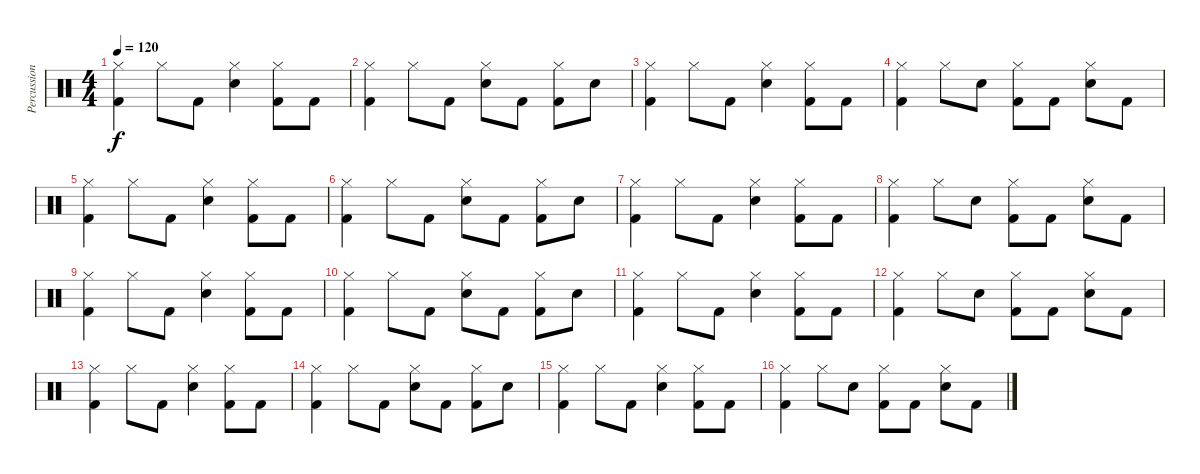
\track ("Percussions" "Percussion") {instrument percussion}
\staff {score}
\articulation defaults
\ts (4 4)
\tempo 120
\clef neutral
\ks c
("Hi-Hat (closed)" "Kick (hit) 2").4{dy f} "Hi-Hat (closed)".8 "Kick (hit) 2".8 ("Hi-Hat (closed)" "Snare (hit) 2").4 ("Hi-Hat (closed)" "Kick (hit) 2").8 "Kick (hit) 2".8 |
("Hi-Hat (closed)" "Kick (hit) 2").4 "Hi-Hat (closed)".8 "Kick (hit) 2".8 ("Hi-Hat (closed)" "Snare (hit) 2").8 "Kick (hit) 2".8 ("Hi-Hat (closed)" "Kick (hit) 2").8 "Snare (hit) 2".8 |
("Hi-Hat (closed)" "Kick (hit) 2").4 "Hi-Hat (closed)".8 "Kick (hit) 2".8 ("Hi-Hat (closed)" "Snare (hit) 2").4 ("Hi-Hat (closed)" "Kick (hit) 2").8 "Kick (hit) 2".8 |
("Hi-Hat (closed)" "Kick (hit) 2").4 "Hi-Hat (closed)".8 "Snare (hit) 2".8 ("Hi-Hat (closed)" "Kick (hit) 2").8 "Kick (hit) 2".8 ("Hi-Hat (closed)" "Snare (hit) 2").8 "Kick (hit) 2".8 |
("Hi-Hat (closed)" "Kick (hit) 2").4 "Hi-Hat (closed)".8 "Kick (hit) 2".8 ("Hi-Hat (closed)" "Snare (hit) 2").4 ("Hi-Hat (closed)" "Kick (hit) 2").8 "Kick (hit) 2".8 |
("Hi-Hat (closed)" "Kick (hit) 2").4 "Hi-Hat (closed)".8 "Kick (hit) 2".8 ("Hi-Hat (closed)" "Snare (hit) 2").8 "Kick (hit) 2".8 ("Hi-Hat (closed)" "Kick (hit) 2").8 "Snare (hit) 2".8 |
("Hi-Hat (closed)" "Kick (hit) 2").4 "Hi-Hat (closed)".8 "Kick (hit) 2".8 ("Hi-Hat (closed)" "Snare (hit) 2").4 ("Hi-Hat (closed)" "Kick (hit) 2").8 "Kick (hit) 2".8 |
("Hi-Hat (closed)" "Kick (hit) 2").4 "Hi-Hat (closed)".8 "Snare (hit) 2".8 ("Hi-Hat (closed)" "Kick (hit) 2").8 "Kick (hit) 2".8 ("Hi-Hat (closed)" "Snare (hit) 2").8 "Kick (hit) 2".8 |
("Hi-Hat (closed)" "Kick (hit) 2").4 "Hi-Hat (closed)".8 "Kick (hit) 2".8 ("Hi-Hat (closed)" "Snare (hit) 2").4 ("Hi-Hat (closed)" "Kick (hit) 2").8 "Kick (hit) 2".8 |
("Hi-Hat (closed)" "Kick (hit) 2").4 "Hi-Hat (closed)".8 "Kick (hit) 2".8 ("Hi-Hat (closed)" "Snare (hit) 2").8 "Kick (hit) 2".8 ("Hi-Hat (closed)" "Kick (hit) 2").8 "Snare (hit) 2".8 |
("Hi-Hat (closed)" "Kick (hit) 2").4 "Hi-Hat (closed)".8 "Kick (hit) 2".8 ("Hi-Hat (closed)" "Snare (hit) 2").4 ("Hi-Hat (closed)" "Kick (hit) 2").8 "Kick (hit) 2".8 |
("Hi-Hat (closed)" "Kick (hit) 2").4 "Hi-Hat (closed)".8 "Snare (hit) 2".8 ("Hi-Hat (closed)" "Kick (hit) 2").8 "Kick (hit) 2".8 ("Hi-Hat (closed)" "Snare (hit) 2").8 "Kick (hit) 2".8 |
("Hi-Hat (closed)" "Kick (hit) 2").4 "Hi-Hat (closed)".8 "Kick (hit) 2".8 ("Hi-Hat (closed)" "Snare (hit) 2").4 ("Hi-Hat (closed)" "Kick (hit) 2").8 "Kick (hit) 2".8 |
("Hi-Hat (closed)" "Kick (hit) 2").4 "Hi-Hat (closed)".8 "Kick (hit) 2".8 ("Hi-Hat (closed)" "Snare (hit) 2").8 "Kick (hit) 2".8 ("Hi-Hat (closed)" "Kick (hit) 2").8 "Snare (hit) 2".8 |
("Hi-Hat (closed)" "Kick (hit) 2").4 "Hi-Hat (closed)".8 "Kick (hit) 2".8 ("Hi-Hat (closed)" "Snare (hit) 2").4 ("Hi-Hat (closed)" "Kick (hit) 2").8 "Kick (hit) 2".8 |
("Hi-Hat (closed)" "Kick (hit) 2").4 "Hi-Hat (closed)".8 "Snare (hit) 2".8 ("Hi-Hat (closed)" "Kick (hit) 2").8 "Kick (hit) 2".8 ("Hi-Hat (closed)" "Snare (hit) 2").8 "Kick (hit) 2".8
